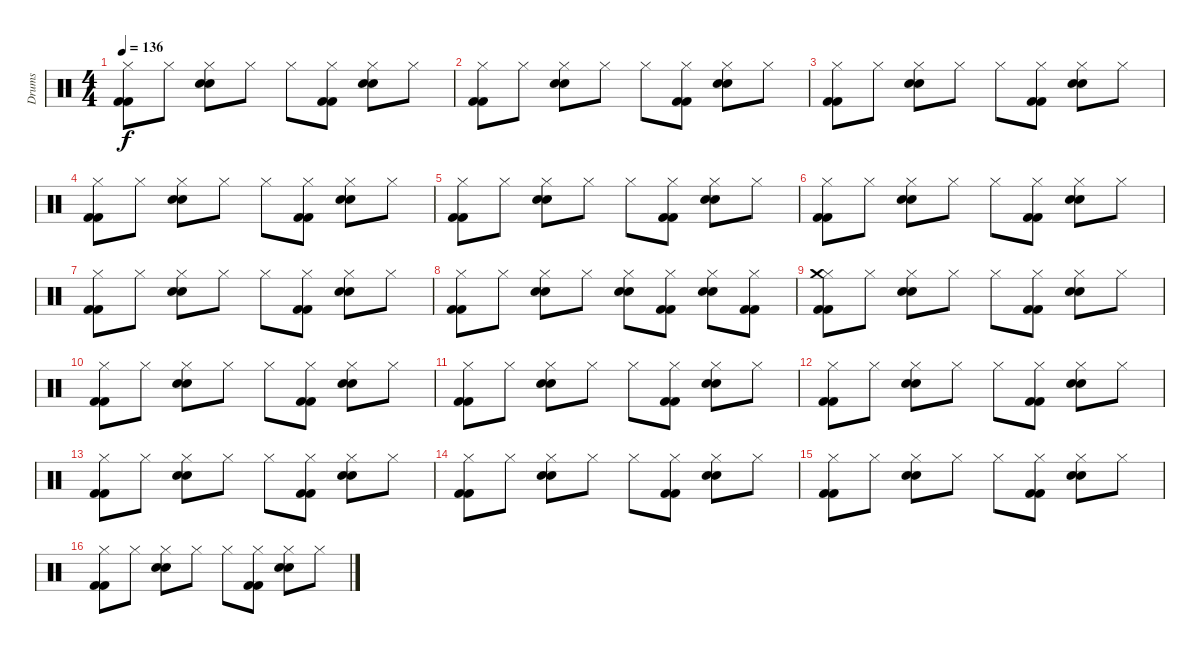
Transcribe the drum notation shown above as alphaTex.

\track ("Drums" "Drums") {instrument percussion}
\staff {score}
\articulation defaults
\ts (4 4)
\tempo 136
\clef neutral
\ks c
("Kick (hit) 2" "Kick (hit) 2" "Hi-Hat (closed)").8{dy f} "Hi-Hat (closed)".8 ("Electric Snare (hit)" "Electric Snare (hit)" "Hi-Hat (closed)").8 "Hi-Hat (closed)".8 "Hi-Hat (closed)".8 ("Kick (hit) 2" "Kick (hit) 2" "Hi-Hat (closed)").8 ("Electric Snare (hit)" "Electric Snare (hit)" "Hi-Hat (closed)").8 "Hi-Hat (closed)".8 |
("Kick (hit) 2" "Kick (hit) 2" "Hi-Hat (closed)").8 "Hi-Hat (closed)".8 ("Electric Snare (hit)" "Electric Snare (hit)" "Hi-Hat (closed)").8 "Hi-Hat (closed)".8 "Hi-Hat (closed)".8 ("Kick (hit) 2" "Kick (hit) 2" "Hi-Hat (closed)").8 ("Electric Snare (hit)" "Electric Snare (hit)" "Hi-Hat (closed)").8 "Hi-Hat (closed)".8 |
("Kick (hit) 2" "Kick (hit) 2" "Hi-Hat (closed)").8 "Hi-Hat (closed)".8 ("Electric Snare (hit)" "Electric Snare (hit)" "Hi-Hat (closed)").8 "Hi-Hat (closed)".8 "Hi-Hat (closed)".8 ("Kick (hit) 2" "Kick (hit) 2" "Hi-Hat (closed)").8 ("Electric Snare (hit)" "Electric Snare (hit)" "Hi-Hat (closed)").8 "Hi-Hat (closed)".8 |
("Kick (hit) 2" "Kick (hit) 2" "Hi-Hat (closed)").8 "Hi-Hat (closed)".8 ("Electric Snare (hit)" "Electric Snare (hit)" "Hi-Hat (closed)").8 "Hi-Hat (closed)".8 "Hi-Hat (closed)".8 ("Kick (hit) 2" "Kick (hit) 2" "Hi-Hat (closed)").8 ("Electric Snare (hit)" "Electric Snare (hit)" "Hi-Hat (closed)").8 "Hi-Hat (closed)".8 |
("Kick (hit) 2" "Kick (hit) 2" "Hi-Hat (closed)").8 "Hi-Hat (closed)".8 ("Electric Snare (hit)" "Electric Snare (hit)" "Hi-Hat (closed)").8 "Hi-Hat (closed)".8 "Hi-Hat (closed)".8 ("Kick (hit) 2" "Kick (hit) 2" "Hi-Hat (closed)").8 ("Electric Snare (hit)" "Electric Snare (hit)" "Hi-Hat (closed)").8 "Hi-Hat (closed)".8 |
("Kick (hit) 2" "Kick (hit) 2" "Hi-Hat (closed)").8 "Hi-Hat (closed)".8 ("Electric Snare (hit)" "Electric Snare (hit)" "Hi-Hat (closed)").8 "Hi-Hat (closed)".8 "Hi-Hat (closed)".8 ("Kick (hit) 2" "Kick (hit) 2" "Hi-Hat (closed)").8 ("Electric Snare (hit)" "Electric Snare (hit)" "Hi-Hat (closed)").8 "Hi-Hat (closed)".8 |
("Kick (hit) 2" "Kick (hit) 2" "Hi-Hat (closed)").8 "Hi-Hat (closed)".8 ("Electric Snare (hit)" "Electric Snare (hit)" "Hi-Hat (closed)").8 "Hi-Hat (closed)".8 "Hi-Hat (closed)".8 ("Kick (hit) 2" "Kick (hit) 2" "Hi-Hat (closed)").8 ("Electric Snare (hit)" "Electric Snare (hit)" "Hi-Hat (closed)").8 "Hi-Hat (closed)".8 |
("Kick (hit) 2" "Kick (hit) 2" "Hi-Hat (closed)").8 "Hi-Hat (closed)".8 ("Electric Snare (hit)" "Electric Snare (hit)" "Hi-Hat (closed)").8 "Hi-Hat (closed)".8 ("Electric Snare (hit)" "Electric Snare (hit)" "Hi-Hat (closed)").8 ("Kick (hit) 2" "Kick (hit) 2" "Hi-Hat (closed)").8 ("Electric Snare (hit)" "Electric Snare (hit)" "Hi-Hat (closed)").8 ("Kick (hit) 2" "Kick (hit) 2" "Hi-Hat (closed)").8 |
("Kick (hit) 2" "Kick (hit) 2" "Hi-Hat (closed)" "Crash medium (hit)").8 "Hi-Hat (closed)".8 ("Electric Snare (hit)" "Electric Snare (hit)" "Hi-Hat (closed)").8 "Hi-Hat (closed)".8 "Hi-Hat (closed)".8 ("Kick (hit) 2" "Kick (hit) 2" "Hi-Hat (closed)").8 ("Electric Snare (hit)" "Electric Snare (hit)" "Hi-Hat (closed)").8 "Hi-Hat (closed)".8 |
("Kick (hit) 2" "Kick (hit) 2" "Hi-Hat (closed)").8 "Hi-Hat (closed)".8 ("Electric Snare (hit)" "Electric Snare (hit)" "Hi-Hat (closed)").8 "Hi-Hat (closed)".8 "Hi-Hat (closed)".8 ("Kick (hit) 2" "Kick (hit) 2" "Hi-Hat (closed)").8 ("Electric Snare (hit)" "Electric Snare (hit)" "Hi-Hat (closed)").8 "Hi-Hat (closed)".8 |
("Kick (hit) 2" "Kick (hit) 2" "Hi-Hat (closed)").8 "Hi-Hat (closed)".8 ("Electric Snare (hit)" "Electric Snare (hit)" "Hi-Hat (closed)").8 "Hi-Hat (closed)".8 "Hi-Hat (closed)".8 ("Kick (hit) 2" "Kick (hit) 2" "Hi-Hat (closed)").8 ("Electric Snare (hit)" "Electric Snare (hit)" "Hi-Hat (closed)").8 "Hi-Hat (closed)".8 |
("Kick (hit) 2" "Kick (hit) 2" "Hi-Hat (closed)").8 "Hi-Hat (closed)".8 ("Electric Snare (hit)" "Electric Snare (hit)" "Hi-Hat (closed)").8 "Hi-Hat (closed)".8 "Hi-Hat (closed)".8 ("Kick (hit) 2" "Kick (hit) 2" "Hi-Hat (closed)").8 ("Electric Snare (hit)" "Electric Snare (hit)" "Hi-Hat (closed)").8 "Hi-Hat (closed)".8 |
("Kick (hit) 2" "Kick (hit) 2" "Hi-Hat (closed)").8 "Hi-Hat (closed)".8 ("Electric Snare (hit)" "Electric Snare (hit)" "Hi-Hat (closed)").8 "Hi-Hat (closed)".8 "Hi-Hat (closed)".8 ("Kick (hit) 2" "Kick (hit) 2" "Hi-Hat (closed)").8 ("Electric Snare (hit)" "Electric Snare (hit)" "Hi-Hat (closed)").8 "Hi-Hat (closed)".8 |
("Kick (hit) 2" "Kick (hit) 2" "Hi-Hat (closed)").8 "Hi-Hat (closed)".8 ("Electric Snare (hit)" "Electric Snare (hit)" "Hi-Hat (closed)").8 "Hi-Hat (closed)".8 "Hi-Hat (closed)".8 ("Kick (hit) 2" "Kick (hit) 2" "Hi-Hat (closed)").8 ("Electric Snare (hit)" "Electric Snare (hit)" "Hi-Hat (closed)").8 "Hi-Hat (closed)".8 |
("Kick (hit) 2" "Kick (hit) 2" "Hi-Hat (closed)").8 "Hi-Hat (closed)".8 ("Electric Snare (hit)" "Electric Snare (hit)" "Hi-Hat (closed)").8 "Hi-Hat (closed)".8 "Hi-Hat (closed)".8 ("Kick (hit) 2" "Kick (hit) 2" "Hi-Hat (closed)").8 ("Electric Snare (hit)" "Electric Snare (hit)" "Hi-Hat (closed)").8 "Hi-Hat (closed)".8 |
("Kick (hit) 2" "Kick (hit) 2" "Hi-Hat (closed)").8 "Hi-Hat (closed)".8 ("Electric Snare (hit)" "Electric Snare (hit)" "Hi-Hat (closed)").8 "Hi-Hat (closed)".8 "Hi-Hat (closed)".8 ("Kick (hit) 2" "Kick (hit) 2" "Hi-Hat (closed)").8 ("Electric Snare (hit)" "Electric Snare (hit)" "Hi-Hat (closed)").8 "Hi-Hat (closed)".8
